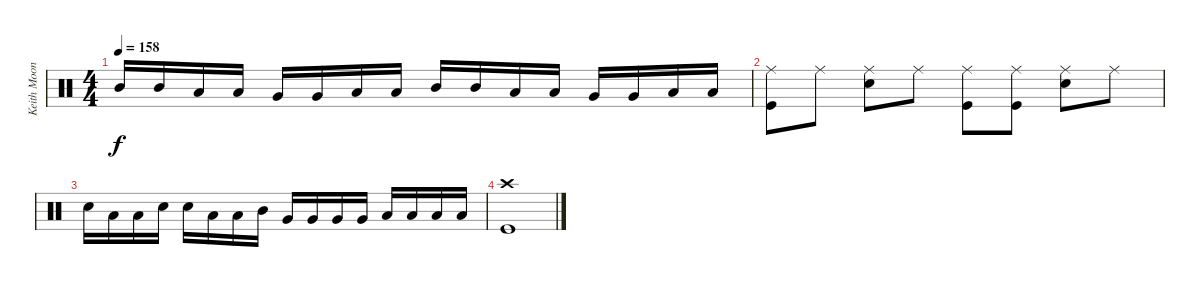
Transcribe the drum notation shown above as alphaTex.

\track ("Keith Moon" "Keith Moon") {instrument percussion}
\staff {score}
\articulation defaults
\ts (4 4)
\tempo 158
\clef neutral
\ks c "Mid Tom (hit)".16{dy f} "Mid Tom (hit)".16 "Low Tom (hit)".16 "Low Tom (hit)".16 "Very Low Tom (hit)".16 "Very Low Tom (hit)".16 "Low Floor Tom (hit)".16 "Low Floor Tom (hit)".16 "Mid Tom (hit)".16 "Mid Tom (hit)".16 "Low Tom (hit)".16 "Low Tom (hit)".16 "Very Low Tom (hit)".16 "Very Low Tom (hit)".16 "Low Floor Tom (hit)".16 "Low Floor Tom (hit)".16
|
("Ride (middle)" "Kick (hit)").8 "Ride (middle)".8 ("Ride (middle)" "Snare (hit) 2").8 "Ride (middle)".8 ("Ride (middle)" "Kick (hit)").8 ("Ride (middle)" "Kick (hit)").8 ("Ride (middle)" "Snare (hit) 2").8 "Ride (middle)".8 |
"Snare (hit) 2".16 "Low Tom (hit)".16 "Low Tom (hit)".16 "Snare (hit) 2".16 "Snare (hit) 2".16 "Low Tom (hit)".16 "Low Tom (hit)".16 "Mid Tom (hit)".16 "Very Low Tom (hit)".16 "Very Low Tom (hit)".16 "Very Low Tom (hit)".16 "Very Low Tom (hit)".16 "Low Floor Tom (hit)".16 "Low Floor Tom (hit)".16 "Low Floor Tom (hit)".16 "Low Floor Tom (hit)".16 |
("Crash high (hit)" "Kick (hit)").1
